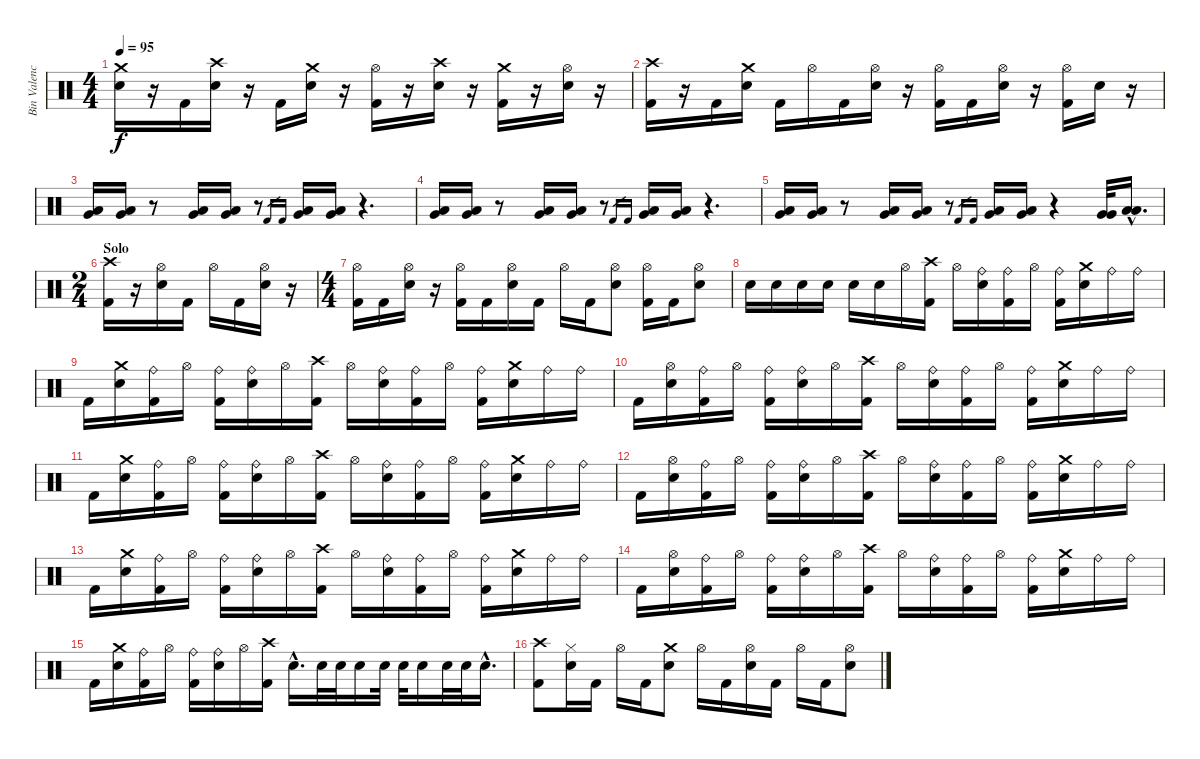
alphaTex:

\track ("Bin Valencia (bateria)" "Bin Valenc") {instrument percussion}
\staff {score}
\articulation defaults
\ts (4 4)
\tempo 95
\clef neutral
\ks c
("Crash medium (hit)" "Snare (hit) 2").16{dy f} r.16 "Kick (hit) 2".16 ("Crash high (hit)" "Snare (hit) 2").16 r.16 "Kick (hit) 2".16 ("Crash medium (hit)" "Snare (hit) 2").16 r.16 ("Hi-Hat (open)" "Kick (hit) 2").16 r.16 ("Crash high (hit)" "Snare (hit) 2").16 r.16 ("Crash medium (hit)" "Kick (hit) 2").16 r.16 ("Hi-Hat (open)" "Snare (hit) 2").16 r.16 |
("Crash high (hit)" "Kick (hit) 2").16 r.16 "Kick (hit) 2".16 ("Crash medium (hit)" "Snare (hit) 2").16 "Kick (hit) 2".16 "Hi-Hat (open)".16 "Kick (hit) 2".16 ("Hi-Hat (open)" "Snare (hit) 2").16 r.16 ("Hi-Hat (open)" "Kick (hit) 2").16 "Kick (hit) 2".16 ("Hi-Hat (open)" "Snare (hit) 2").16 r.16 ("Hi-Hat (open)" "Kick (hit) 2").16 "Snare (hit) 2".16 r.16 |
("Very Low Tom (hit)" "Low Floor Tom (hit)").16 ("Very Low Tom (hit)" "Low Floor Tom (hit)").16 r.8 ("Very Low Tom (hit)" "Low Floor Tom (hit)").16 ("Very Low Tom (hit)" "Low Floor Tom (hit)").16 r.8 "Kick (hit) 2".16{gr} "Kick (hit) 2".16{gr} ("Very Low Tom (hit)" "Low Floor Tom (hit)").16 ("Very Low Tom (hit)" "Low Floor Tom (hit)").16 r.4{d} |
("Very Low Tom (hit)" "Low Floor Tom (hit)").16 ("Very Low Tom (hit)" "Low Floor Tom (hit)").16 r.8 ("Very Low Tom (hit)" "Low Floor Tom (hit)").16 ("Very Low Tom (hit)" "Low Floor Tom (hit)").16 r.8 "Kick (hit) 2".16{gr} "Kick (hit) 2".16{gr} ("Very Low Tom (hit)" "Low Floor Tom (hit)").16 ("Very Low Tom (hit)" "Low Floor Tom (hit)").16 r.4{d} |
("Very Low Tom (hit)" "Low Floor Tom (hit)").16 ("Very Low Tom (hit)" "Low Floor Tom (hit)").16 r.8 ("Very Low Tom (hit)" "Low Floor Tom (hit)").16 ("Very Low Tom (hit)" "Low Floor Tom (hit)").16 r.8 "Kick (hit) 2".16{gr} "Kick (hit) 2".16{gr} ("Very Low Tom (hit)" "Low Floor Tom (hit)").16 ("Very Low Tom (hit)" "Low Floor Tom (hit)").16 r.4 ("Very Low Tom (hit)" "Very Low Tom (hit)").32 ("Low Floor Tom (hit)"{hac} "Low Floor Tom (hit)"{hac}).16{d} |
\ts (2 4)
\section ("" "Solo")
("Crash high (hit)" "Kick (hit) 2").16 r.16 ("Hi-Hat (open)" "Snare (hit) 2").16 "Kick (hit) 2".16 "Hi-Hat (open)".16 "Kick (hit) 2".16 ("Hi-Hat (open)" "Snare (hit) 2").16 r.16 |
\ts (4 4)
("Hi-Hat (open)" "Kick (hit) 2").16 "Kick (hit) 2".16 ("Hi-Hat (open)" "Snare (hit) 2").16 r.16 ("Hi-Hat (open)" "Kick (hit) 2").16 "Kick (hit) 2".16 ("Hi-Hat (open)" "Snare (hit) 2").16 "Kick (hit) 2".16 "Hi-Hat (open)".16 "Kick (hit) 2".16 ("Hi-Hat (open)" "Snare (hit) 2").8 ("Hi-Hat (open)" "Kick (hit) 2").16 "Kick (hit) 2".16 ("Hi-Hat (open)" "Snare (hit) 2").8 |
"Electric Snare (hit)".16 "Electric Snare (hit)".16 "Electric Snare (hit)".16 "Electric Snare (hit)".16 "Electric Snare (hit)".16 "Electric Snare (hit)".16 "Hi-Hat (open)".16 ("Crash high (hit)" "Kick (hit) 2").16 "Hi-Hat (open)".16 ("Ride (bell)" "Snare (hit) 2").16 ("Ride (bell)" "Kick (hit) 2").16 "Hi-Hat (open)".16 ("Ride (bell)" "Kick (hit) 2").16 ("Crash medium (hit)" "Snare (hit) 2").16 "Ride (bell)".16 "Ride (bell)".16 |
"Kick (hit) 2".16 ("Crash medium (hit)" "Snare (hit) 2").16 ("Ride (bell)" "Kick (hit) 2").16 "Hi-Hat (open)".16 ("Ride (bell)" "Kick (hit) 2").16 ("Ride (bell)" "Snare (hit) 2").16 "Hi-Hat (open)".16 ("Crash high (hit)" "Kick (hit) 2").16 "Hi-Hat (open)".16 ("Ride (bell)" "Snare (hit) 2").16 ("Ride (bell)" "Kick (hit) 2").16 "Hi-Hat (open)".16 ("Ride (bell)" "Kick (hit) 2").16 ("Crash medium (hit)" "Snare (hit) 2").16 "Ride (bell)".16 "Ride (bell)".16 |
"Kick (hit) 2".16 ("Hi-Hat (open)" "Snare (hit) 2").16 ("Ride (bell)" "Kick (hit) 2").16 "Hi-Hat (open)".16 ("Ride (bell)" "Kick (hit) 2").16 ("Ride (bell)" "Snare (hit) 2").16 "Hi-Hat (open)".16 ("Crash high (hit)" "Kick (hit) 2").16 "Hi-Hat (open)".16 ("Ride (bell)" "Snare (hit) 2").16 ("Ride (bell)" "Kick (hit) 2").16 "Hi-Hat (open)".16 ("Ride (bell)" "Kick (hit) 2").16 ("Crash medium (hit)" "Snare (hit) 2").16 "Ride (bell)".16 "Ride (bell)".16 |
"Kick (hit) 2".16 ("Crash medium (hit)" "Snare (hit) 2").16 ("Ride (bell)" "Kick (hit) 2").16 "Hi-Hat (open)".16 ("Ride (bell)" "Kick (hit) 2").16 ("Ride (bell)" "Snare (hit) 2").16 "Hi-Hat (open)".16 ("Crash high (hit)" "Kick (hit) 2").16 "Hi-Hat (open)".16 ("Ride (bell)" "Snare (hit) 2").16 ("Ride (bell)" "Kick (hit) 2").16 "Hi-Hat (open)".16 ("Ride (bell)" "Kick (hit) 2").16 ("Crash medium (hit)" "Snare (hit) 2").16 "Ride (bell)".16 "Ride (bell)".16 |
"Kick (hit) 2".16 ("Hi-Hat (open)" "Snare (hit) 2").16 ("Ride (bell)" "Kick (hit) 2").16 "Hi-Hat (open)".16 ("Ride (bell)" "Kick (hit) 2").16 ("Ride (bell)" "Snare (hit) 2").16 "Hi-Hat (open)".16 ("Crash high (hit)" "Kick (hit) 2").16 "Hi-Hat (open)".16 ("Ride (bell)" "Snare (hit) 2").16 ("Ride (bell)" "Kick (hit) 2").16 "Hi-Hat (open)".16 ("Ride (bell)" "Kick (hit) 2").16 ("Crash medium (hit)" "Snare (hit) 2").16 "Ride (bell)".16 "Ride (bell)".16 |
"Kick (hit) 2".16 ("Crash medium (hit)" "Snare (hit) 2").16 ("Ride (bell)" "Kick (hit) 2").16 "Hi-Hat (open)".16 ("Ride (bell)" "Kick (hit) 2").16 ("Ride (bell)" "Snare (hit) 2").16 "Hi-Hat (open)".16 ("Crash high (hit)" "Kick (hit) 2").16 "Hi-Hat (open)".16 ("Ride (bell)" "Snare (hit) 2").16 ("Ride (bell)" "Kick (hit) 2").16 "Hi-Hat (open)".16 ("Ride (bell)" "Kick (hit) 2").16 ("Crash medium (hit)" "Snare (hit) 2").16 "Ride (bell)".16 "Ride (bell)".16 |
"Kick (hit) 2".16 ("Hi-Hat (open)" "Snare (hit) 2").16 ("Ride (bell)" "Kick (hit) 2").16 "Hi-Hat (open)".16 ("Ride (bell)" "Kick (hit) 2").16 ("Ride (bell)" "Snare (hit) 2").16 "Hi-Hat (open)".16 ("Crash high (hit)" "Kick (hit) 2").16 "Hi-Hat (open)".16 ("Ride (bell)" "Snare (hit) 2").16 ("Ride (bell)" "Kick (hit) 2").16 "Hi-Hat (open)".16 ("Ride (bell)" "Kick (hit) 2").16 ("Crash medium (hit)" "Snare (hit) 2").16 "Ride (bell)".16 "Ride (bell)".16 |
"Kick (hit) 2".16 ("Crash medium (hit)" "Snare (hit) 2").16 ("Ride (bell)" "Kick (hit) 2").16 "Hi-Hat (open)".16 ("Ride (bell)" "Kick (hit) 2").16 ("Ride (bell)" "Snare (hit) 2").16 "Hi-Hat (open)".16 ("Crash high (hit)" "Kick (hit) 2").16 "Snare (hit) 2"{hac}.16{d} "Snare (hit) 2".32 "Snare (hit) 2".32 "Snare (hit) 2".16 "Snare (hit) 2".32 "Snare (hit) 2".32 "Snare (hit) 2".16 "Snare (hit) 2".32 "Snare (hit) 2".32 "Snare (hit) 2"{hac}.16{d} |
("Crash high (hit)" "Kick (hit) 2").8 ("Hi-Hat (closed)" "Snare (hit) 2").16 "Kick (hit) 2".16 "Hi-Hat (open)".16 "Kick (hit) 2".16 ("Crash medium (hit)" "Snare (hit) 2").8 "Hi-Hat (open)".16 "Kick (hit) 2".16 ("Hi-Hat (open)" "Snare (hit) 2").16 "Kick (hit) 2".16 "Hi-Hat (open)".16 "Kick (hit) 2".16 ("Hi-Hat (open)" "Snare (hit) 2").8
